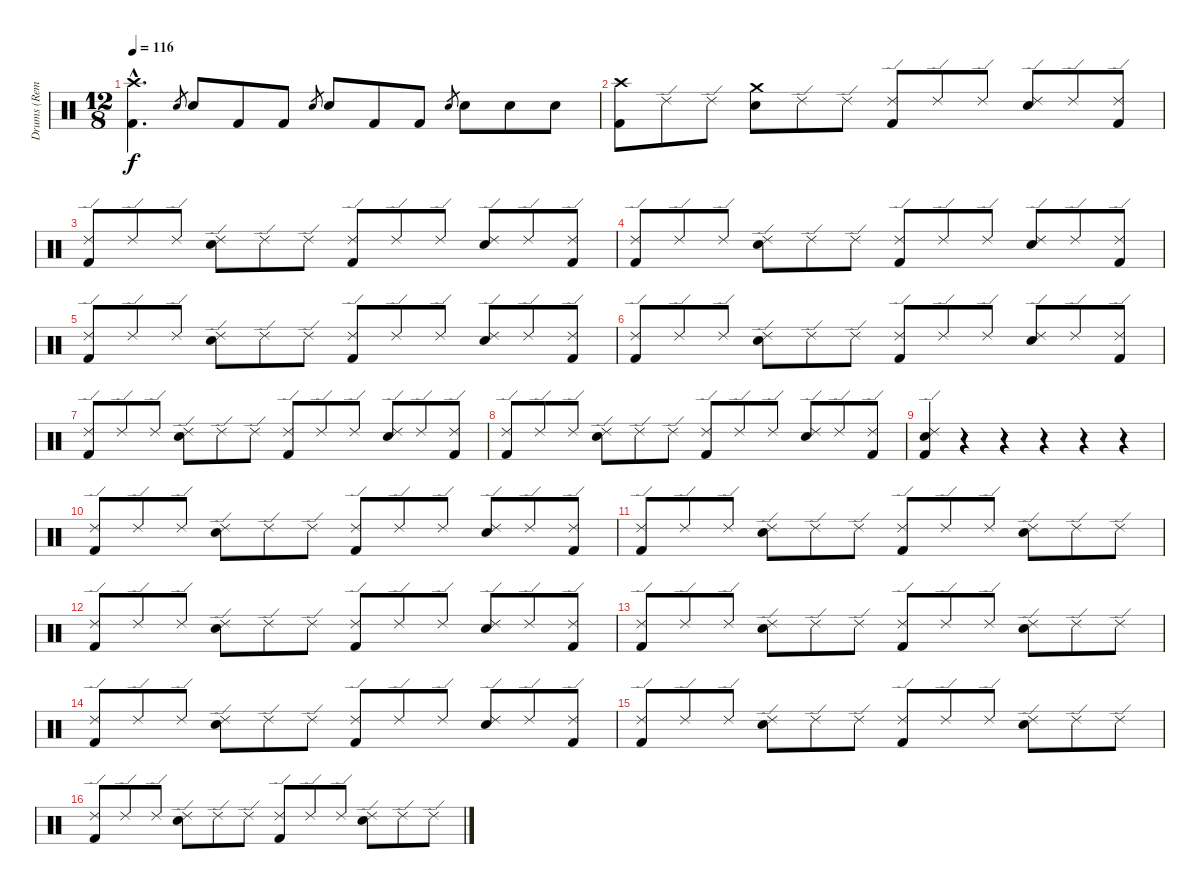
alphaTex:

\track ("Drums (Remu Aaltonen)" "Drums (Rem") {instrument percussion}
\staff {score}
\articulation defaults
\ts (12 8)
\tempo 116
\clef neutral
\ks c
("Crash high (hit)"{hac} "Kick (hit) 2"{hac}).4{d dy f} "Snare (hit) 2".8{gr} "Snare (hit) 2".8 "Kick (hit) 2".8 "Kick (hit) 2".8 "Snare (hit) 2".8{gr} "Snare (hit) 2".8 "Kick (hit) 2".8 "Kick (hit) 2".8 "Snare (hit) 2".8{gr} "Snare (hit) 2".8 "Snare (hit) 2".8 "Snare (hit) 2".8 |
("Crash high (hit)" "Kick (hit) 2").8 "Ride (edge) 2".8 "Ride (edge) 2".8 ("Crash medium (hit)" "Snare (hit) 2").8 "Ride (edge) 2".8 "Ride (edge) 2".8 ("Ride (edge) 2" "Kick (hit) 2").8 "Ride (edge) 2".8 "Ride (edge) 2".8 ("Ride (edge) 2" "Snare (hit) 2").8 "Ride (edge) 2".8 ("Ride (edge) 2" "Kick (hit) 2").8 |
("Ride (edge) 2" "Kick (hit) 2").8 "Ride (edge) 2".8 "Ride (edge) 2".8 ("Ride (edge) 2" "Snare (hit) 2").8 "Ride (edge) 2".8 "Ride (edge) 2".8 ("Ride (edge) 2" "Kick (hit) 2").8 "Ride (edge) 2".8 "Ride (edge) 2".8 ("Ride (edge) 2" "Snare (hit) 2").8 "Ride (edge) 2".8 ("Ride (edge) 2" "Kick (hit) 2").8 |
("Ride (edge) 2" "Kick (hit) 2").8 "Ride (edge) 2".8 "Ride (edge) 2".8 ("Ride (edge) 2" "Snare (hit) 2").8 "Ride (edge) 2".8 "Ride (edge) 2".8 ("Ride (edge) 2" "Kick (hit) 2").8 "Ride (edge) 2".8 "Ride (edge) 2".8 ("Ride (edge) 2" "Snare (hit) 2").8 "Ride (edge) 2".8 ("Ride (edge) 2" "Kick (hit) 2").8 |
("Ride (edge) 2" "Kick (hit) 2").8 "Ride (edge) 2".8 "Ride (edge) 2".8 ("Ride (edge) 2" "Snare (hit) 2").8 "Ride (edge) 2".8 "Ride (edge) 2".8 ("Ride (edge) 2" "Kick (hit) 2").8 "Ride (edge) 2".8 "Ride (edge) 2".8 ("Ride (edge) 2" "Snare (hit) 2").8 "Ride (edge) 2".8 ("Ride (edge) 2" "Kick (hit) 2").8 |
("Ride (edge) 2" "Kick (hit) 2").8 "Ride (edge) 2".8 "Ride (edge) 2".8 ("Ride (edge) 2" "Snare (hit) 2").8 "Ride (edge) 2".8 "Ride (edge) 2".8 ("Ride (edge) 2" "Kick (hit) 2").8 "Ride (edge) 2".8 "Ride (edge) 2".8 ("Ride (edge) 2" "Snare (hit) 2").8 "Ride (edge) 2".8 ("Ride (edge) 2" "Kick (hit) 2").8 |
("Ride (edge) 2" "Kick (hit) 2").8 "Ride (edge) 2".8 "Ride (edge) 2".8 ("Ride (edge) 2" "Snare (hit) 2").8 "Ride (edge) 2".8 "Ride (edge) 2".8 ("Ride (edge) 2" "Kick (hit) 2").8 "Ride (edge) 2".8 "Ride (edge) 2".8 ("Ride (edge) 2" "Snare (hit) 2").8 "Ride (edge) 2".8 ("Ride (edge) 2" "Kick (hit) 2").8 |
("Ride (edge) 2" "Kick (hit) 2").8 "Ride (edge) 2".8 "Ride (edge) 2".8 ("Ride (edge) 2" "Snare (hit) 2").8 "Ride (edge) 2".8 "Ride (edge) 2".8 ("Ride (edge) 2" "Kick (hit) 2").8 "Ride (edge) 2".8 "Ride (edge) 2".8 ("Ride (edge) 2" "Snare (hit) 2").8 "Ride (edge) 2".8 ("Ride (edge) 2" "Kick (hit) 2").8 |
("Ride (edge) 2" "Snare (hit) 2" "Kick (hit) 2").4 r.4 r.4 r.4 r.4 r.4 |
("Ride (edge) 2" "Kick (hit) 2").8 "Ride (edge) 2".8 "Ride (edge) 2".8 ("Ride (edge) 2" "Snare (hit) 2").8 "Ride (edge) 2".8 "Ride (edge) 2".8 ("Ride (edge) 2" "Kick (hit) 2").8 "Ride (edge) 2".8 "Ride (edge) 2".8 ("Ride (edge) 2" "Snare (hit) 2").8 "Ride (edge) 2".8 ("Ride (edge) 2" "Kick (hit) 2").8 |
("Ride (edge) 2" "Kick (hit) 2").8 "Ride (edge) 2".8 "Ride (edge) 2".8 ("Ride (edge) 2" "Snare (hit) 2").8 "Ride (edge) 2".8 "Ride (edge) 2".8 ("Ride (edge) 2" "Kick (hit) 2").8 "Ride (edge) 2".8 "Ride (edge) 2".8 ("Ride (edge) 2" "Snare (hit) 2").8 "Ride (edge) 2".8 "Ride (edge) 2".8 |
("Ride (edge) 2" "Kick (hit) 2").8 "Ride (edge) 2".8 "Ride (edge) 2".8 ("Ride (edge) 2" "Snare (hit) 2").8 "Ride (edge) 2".8 "Ride (edge) 2".8 ("Ride (edge) 2" "Kick (hit) 2").8 "Ride (edge) 2".8 "Ride (edge) 2".8 ("Ride (edge) 2" "Snare (hit) 2").8 "Ride (edge) 2".8 ("Ride (edge) 2" "Kick (hit) 2").8 |
("Ride (edge) 2" "Kick (hit) 2").8 "Ride (edge) 2".8 "Ride (edge) 2".8 ("Ride (edge) 2" "Snare (hit) 2").8 "Ride (edge) 2".8 "Ride (edge) 2".8 ("Ride (edge) 2" "Kick (hit) 2").8 "Ride (edge) 2".8 "Ride (edge) 2".8 ("Ride (edge) 2" "Snare (hit) 2").8 "Ride (edge) 2".8 "Ride (edge) 2".8 |
("Ride (edge) 2" "Kick (hit) 2").8 "Ride (edge) 2".8 "Ride (edge) 2".8 ("Ride (edge) 2" "Snare (hit) 2").8 "Ride (edge) 2".8 "Ride (edge) 2".8 ("Ride (edge) 2" "Kick (hit) 2").8 "Ride (edge) 2".8 "Ride (edge) 2".8 ("Ride (edge) 2" "Snare (hit) 2").8 "Ride (edge) 2".8 ("Ride (edge) 2" "Kick (hit) 2").8 |
("Ride (edge) 2" "Kick (hit) 2").8 "Ride (edge) 2".8 "Ride (edge) 2".8 ("Ride (edge) 2" "Snare (hit) 2").8 "Ride (edge) 2".8 "Ride (edge) 2".8 ("Ride (edge) 2" "Kick (hit) 2").8 "Ride (edge) 2".8 "Ride (edge) 2".8 ("Ride (edge) 2" "Snare (hit) 2").8 "Ride (edge) 2".8 "Ride (edge) 2".8 |
("Ride (edge) 2" "Kick (hit) 2").8 "Ride (edge) 2".8 "Ride (edge) 2".8 ("Ride (edge) 2" "Snare (hit) 2").8 "Ride (edge) 2".8 "Ride (edge) 2".8 ("Ride (edge) 2" "Kick (hit) 2").8 "Ride (edge) 2".8 "Ride (edge) 2".8 ("Ride (edge) 2" "Snare (hit) 2").8 "Ride (edge) 2".8 "Ride (edge) 2".8
